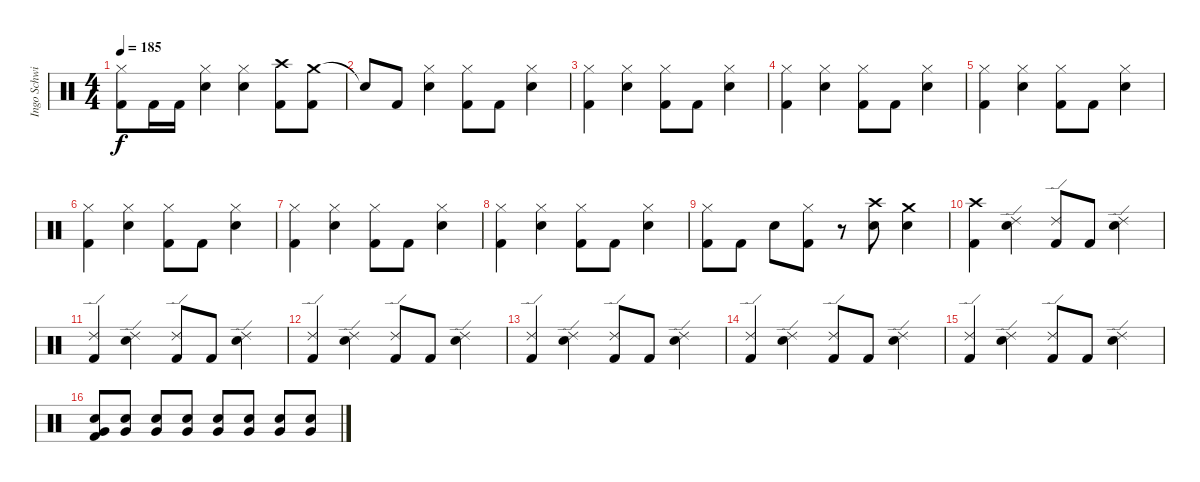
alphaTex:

\track ("Ingo Schwischtenberg" "Ingo Schwi") {instrument percussion}
\staff {score}
\articulation defaults
\ts (4 4)
\tempo 185
\clef neutral
\ks c
("Hi-Hat (closed)" "Kick (hit) 2").8{dy f} "Kick (hit) 2".16 "Kick (hit) 2".16 ("Hi-Hat (closed)" "Electric Snare (hit)").4 ("Hi-Hat (closed)" "Electric Snare (hit)").4 ("Crash high (hit)" "Kick (hit) 2").8 ("Crash medium (hit)" "Kick (hit) 2").8 |
"Snare (hit)"{t}.8 "Kick (hit) 2".8 ("Hi-Hat (closed)" "Electric Snare (hit)").4 ("Hi-Hat (closed)" "Kick (hit) 2").8 "Kick (hit) 2".8 ("Hi-Hat (closed)" "Electric Snare (hit)").4 |
("Hi-Hat (closed)" "Kick (hit) 2").4 ("Hi-Hat (closed)" "Electric Snare (hit)").4 ("Hi-Hat (closed)" "Kick (hit) 2").8 "Kick (hit) 2".8 ("Hi-Hat (closed)" "Electric Snare (hit)").4 |
("Hi-Hat (closed)" "Kick (hit) 2").4 ("Hi-Hat (closed)" "Electric Snare (hit)").4 ("Hi-Hat (closed)" "Kick (hit) 2").8 "Kick (hit) 2".8 ("Hi-Hat (closed)" "Electric Snare (hit)").4 |
("Hi-Hat (closed)" "Kick (hit) 2").4 ("Hi-Hat (closed)" "Electric Snare (hit)").4 ("Hi-Hat (closed)" "Kick (hit) 2").8 "Kick (hit) 2".8 ("Hi-Hat (closed)" "Electric Snare (hit)").4 |
("Hi-Hat (closed)" "Kick (hit) 2").4 ("Hi-Hat (closed)" "Electric Snare (hit)").4 ("Hi-Hat (closed)" "Kick (hit) 2").8 "Kick (hit) 2".8 ("Hi-Hat (closed)" "Electric Snare (hit)").4 |
("Hi-Hat (closed)" "Kick (hit) 2").4 ("Hi-Hat (closed)" "Electric Snare (hit)").4 ("Hi-Hat (closed)" "Kick (hit) 2").8 "Kick (hit) 2".8 ("Hi-Hat (closed)" "Electric Snare (hit)").4 |
("Hi-Hat (closed)" "Kick (hit) 2").4 ("Hi-Hat (closed)" "Electric Snare (hit)").4 ("Hi-Hat (closed)" "Kick (hit) 2").8 "Kick (hit) 2".8 ("Hi-Hat (closed)" "Electric Snare (hit)").4 |
("Hi-Hat (closed)" "Kick (hit) 2").8 "Kick (hit) 2".8 "Electric Snare (hit)".8 ("Hi-Hat (closed)" "Kick (hit) 2").8 r.8 ("Crash high (hit)" "Electric Snare (hit)").8 ("Crash medium (hit)" "Electric Snare (hit)").4 |
("Crash high (hit)" "Kick (hit) 2").4 ("Ride (edge) 2" "Electric Snare (hit)").4 ("Ride (edge) 2" "Kick (hit) 2").8 "Kick (hit) 2".8 ("Ride (edge) 2" "Electric Snare (hit)").4 |
("Ride (edge) 2" "Kick (hit) 2").4 ("Ride (edge) 2" "Electric Snare (hit)").4 ("Ride (edge) 2" "Kick (hit) 2").8 "Kick (hit) 2".8 ("Ride (edge) 2" "Electric Snare (hit)").4 |
("Ride (edge) 2" "Kick (hit) 2").4 ("Ride (edge) 2" "Electric Snare (hit)").4 ("Ride (edge) 2" "Kick (hit) 2").8 "Kick (hit) 2".8 ("Ride (edge) 2" "Electric Snare (hit)").4 |
("Ride (edge) 2" "Kick (hit) 2").4 ("Ride (edge) 2" "Electric Snare (hit)").4 ("Ride (edge) 2" "Kick (hit) 2").8 "Kick (hit) 2".8 ("Ride (edge) 2" "Electric Snare (hit)").4 |
("Ride (edge) 2" "Kick (hit) 2").4 ("Ride (edge) 2" "Electric Snare (hit)").4 ("Ride (edge) 2" "Kick (hit) 2").8 "Kick (hit) 2".8 ("Ride (edge) 2" "Electric Snare (hit)").4 |
("Ride (edge) 2" "Kick (hit) 2").4 ("Ride (edge) 2" "Electric Snare (hit)").4 ("Ride (edge) 2" "Kick (hit) 2").8 "Kick (hit) 2".8 ("Ride (edge) 2" "Electric Snare (hit)").4 |
("Electric Snare (hit)" "Very Low Tom (hit)" "Kick (hit) 2").8 ("Electric Snare (hit)" "Very Low Tom (hit)").8 ("Electric Snare (hit)" "Very Low Tom (hit)").8 ("Electric Snare (hit)" "Very Low Tom (hit)").8 ("Electric Snare (hit)" "Very Low Tom (hit)").8 ("Electric Snare (hit)" "Very Low Tom (hit)").8 ("Electric Snare (hit)" "Very Low Tom (hit)").8 ("Electric Snare (hit)" "Very Low Tom (hit)").8
